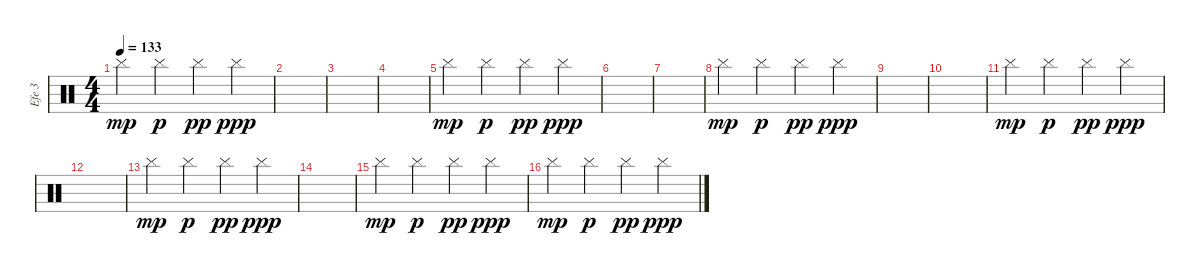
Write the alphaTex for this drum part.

\track ("Efe 3" "Efe 3") {instrument percussion}
\staff {score}
\articulation defaults
\ts (4 4)
\tempo 133
\clef neutral
\ks c "Cymbal (hit)".4{dy mp} "Cymbal (hit)".4{dy p} "Cymbal (hit)".4{dy pp} "Cymbal (hit)".4{dy ppp}
|
|
|
|
"Cymbal (hit)".4{dy mp} "Cymbal (hit)".4{dy p} "Cymbal (hit)".4{dy pp} "Cymbal (hit)".4{dy ppp} |
|
|
"Cymbal (hit)".4{dy mp} "Cymbal (hit)".4{dy p} "Cymbal (hit)".4{dy pp} "Cymbal (hit)".4{dy ppp} |
|
|
"Cymbal (hit)".4{dy mp} "Cymbal (hit)".4{dy p} "Cymbal (hit)".4{dy pp} "Cymbal (hit)".4{dy ppp} |
|
"Cymbal (hit)".4{dy mp} "Cymbal (hit)".4{dy p} "Cymbal (hit)".4{dy pp} "Cymbal (hit)".4{dy ppp} |
|
"Cymbal (hit)".4{dy mp} "Cymbal (hit)".4{dy p} "Cymbal (hit)".4{dy pp} "Cymbal (hit)".4{dy ppp} |
"Cymbal (hit)".4{dy mp} "Cymbal (hit)".4{dy p} "Cymbal (hit)".4{dy pp} "Cymbal (hit)".4{dy ppp}
